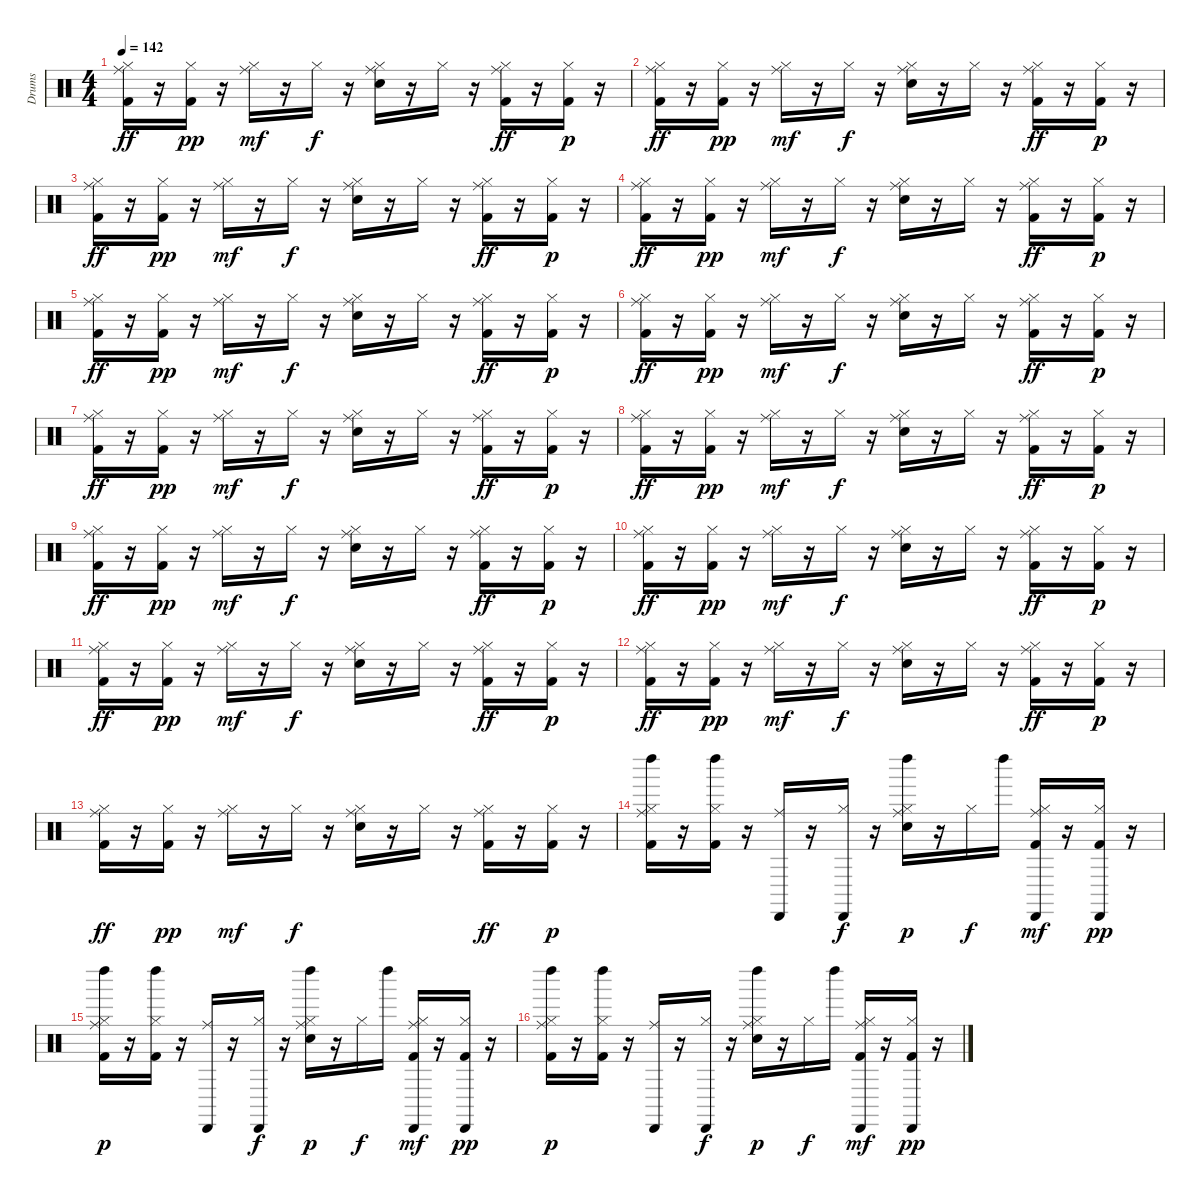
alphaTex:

\track ("Drums" "Drums") {instrument percussion}
\staff {score}
\articulation defaults
\ts (4 4)
\tempo 142
\clef neutral
\ks c
("Ride (middle)" "Hi-Hat (closed)" "Kick (hit) 2").16{dy ff} r.16 ("Hi-Hat (closed)" "Kick (hit) 2").16{dy pp} r.16 ("Ride (middle)" "Hi-Hat (closed)").16{dy mf} r.16 "Hi-Hat (closed)".16{dy f} r.16 ("Ride (middle)" "Hi-Hat (closed)" "Snare (hit) 2").16 r.16 "Hi-Hat (closed)".16 r.16 ("Ride (middle)" "Hi-Hat (closed)" "Kick (hit) 2").16{dy ff} r.16 ("Hi-Hat (closed)" "Kick (hit) 2").16{dy p} r.16 |
("Ride (middle)" "Hi-Hat (closed)" "Kick (hit) 2").16{dy ff} r.16 ("Hi-Hat (closed)" "Kick (hit) 2").16{dy pp} r.16 ("Ride (middle)" "Hi-Hat (closed)").16{dy mf} r.16 "Hi-Hat (closed)".16{dy f} r.16 ("Ride (middle)" "Hi-Hat (closed)" "Snare (hit) 2").16 r.16 "Hi-Hat (closed)".16 r.16 ("Ride (middle)" "Hi-Hat (closed)" "Kick (hit) 2").16{dy ff} r.16 ("Hi-Hat (closed)" "Kick (hit) 2").16{dy p} r.16 |
("Ride (middle)" "Hi-Hat (closed)" "Kick (hit) 2").16{dy ff} r.16 ("Hi-Hat (closed)" "Kick (hit) 2").16{dy pp} r.16 ("Ride (middle)" "Hi-Hat (closed)").16{dy mf} r.16 "Hi-Hat (closed)".16{dy f} r.16 ("Ride (middle)" "Hi-Hat (closed)" "Snare (hit) 2").16 r.16 "Hi-Hat (closed)".16 r.16 ("Ride (middle)" "Hi-Hat (closed)" "Kick (hit) 2").16{dy ff} r.16 ("Hi-Hat (closed)" "Kick (hit) 2").16{dy p} r.16 |
("Ride (middle)" "Hi-Hat (closed)" "Kick (hit) 2").16{dy ff} r.16 ("Hi-Hat (closed)" "Kick (hit) 2").16{dy pp} r.16 ("Ride (middle)" "Hi-Hat (closed)").16{dy mf} r.16 "Hi-Hat (closed)".16{dy f} r.16 ("Ride (middle)" "Hi-Hat (closed)" "Snare (hit) 2").16 r.16 "Hi-Hat (closed)".16 r.16 ("Ride (middle)" "Hi-Hat (closed)" "Kick (hit) 2").16{dy ff} r.16 ("Hi-Hat (closed)" "Kick (hit) 2").16{dy p} r.16 |
("Ride (middle)" "Hi-Hat (closed)" "Kick (hit) 2").16{dy ff} r.16 ("Hi-Hat (closed)" "Kick (hit) 2").16{dy pp} r.16 ("Ride (middle)" "Hi-Hat (closed)").16{dy mf} r.16 "Hi-Hat (closed)".16{dy f} r.16 ("Ride (middle)" "Hi-Hat (closed)" "Snare (hit) 2").16 r.16 "Hi-Hat (closed)".16 r.16 ("Ride (middle)" "Hi-Hat (closed)" "Kick (hit) 2").16{dy ff} r.16 ("Hi-Hat (closed)" "Kick (hit) 2").16{dy p} r.16 |
("Ride (middle)" "Hi-Hat (closed)" "Kick (hit) 2").16{dy ff} r.16 ("Hi-Hat (closed)" "Kick (hit) 2").16{dy pp} r.16 ("Ride (middle)" "Hi-Hat (closed)").16{dy mf} r.16 "Hi-Hat (closed)".16{dy f} r.16 ("Ride (middle)" "Hi-Hat (closed)" "Snare (hit) 2").16 r.16 "Hi-Hat (closed)".16 r.16 ("Ride (middle)" "Hi-Hat (closed)" "Kick (hit) 2").16{dy ff} r.16 ("Hi-Hat (closed)" "Kick (hit) 2").16{dy p} r.16 |
("Ride (middle)" "Hi-Hat (closed)" "Kick (hit) 2").16{dy ff} r.16 ("Hi-Hat (closed)" "Kick (hit) 2").16{dy pp} r.16 ("Ride (middle)" "Hi-Hat (closed)").16{dy mf} r.16 "Hi-Hat (closed)".16{dy f} r.16 ("Ride (middle)" "Hi-Hat (closed)" "Snare (hit) 2").16 r.16 "Hi-Hat (closed)".16 r.16 ("Ride (middle)" "Hi-Hat (closed)" "Kick (hit) 2").16{dy ff} r.16 ("Hi-Hat (closed)" "Kick (hit) 2").16{dy p} r.16 |
("Ride (middle)" "Hi-Hat (closed)" "Kick (hit) 2").16{dy ff} r.16 ("Hi-Hat (closed)" "Kick (hit) 2").16{dy pp} r.16 ("Ride (middle)" "Hi-Hat (closed)").16{dy mf} r.16 "Hi-Hat (closed)".16{dy f} r.16 ("Ride (middle)" "Hi-Hat (closed)" "Snare (hit) 2").16 r.16 "Hi-Hat (closed)".16 r.16 ("Ride (middle)" "Hi-Hat (closed)" "Kick (hit) 2").16{dy ff} r.16 ("Hi-Hat (closed)" "Kick (hit) 2").16{dy p} r.16 |
("Ride (middle)" "Hi-Hat (closed)" "Kick (hit) 2").16{dy ff} r.16 ("Hi-Hat (closed)" "Kick (hit) 2").16{dy pp} r.16 ("Ride (middle)" "Hi-Hat (closed)").16{dy mf} r.16 "Hi-Hat (closed)".16{dy f} r.16 ("Ride (middle)" "Hi-Hat (closed)" "Snare (hit) 2").16 r.16 "Hi-Hat (closed)".16 r.16 ("Ride (middle)" "Hi-Hat (closed)" "Kick (hit) 2").16{dy ff} r.16 ("Hi-Hat (closed)" "Kick (hit) 2").16{dy p} r.16 |
("Ride (middle)" "Hi-Hat (closed)" "Kick (hit) 2").16{dy ff} r.16 ("Hi-Hat (closed)" "Kick (hit) 2").16{dy pp} r.16 ("Ride (middle)" "Hi-Hat (closed)").16{dy mf} r.16 "Hi-Hat (closed)".16{dy f} r.16 ("Ride (middle)" "Hi-Hat (closed)" "Snare (hit) 2").16 r.16 "Hi-Hat (closed)".16 r.16 ("Ride (middle)" "Hi-Hat (closed)" "Kick (hit) 2").16{dy ff} r.16 ("Hi-Hat (closed)" "Kick (hit) 2").16{dy p} r.16 |
("Ride (middle)" "Hi-Hat (closed)" "Kick (hit) 2").16{dy ff} r.16 ("Hi-Hat (closed)" "Kick (hit) 2").16{dy pp} r.16 ("Ride (middle)" "Hi-Hat (closed)").16{dy mf} r.16 "Hi-Hat (closed)".16{dy f} r.16 ("Ride (middle)" "Hi-Hat (closed)" "Snare (hit) 2").16 r.16 "Hi-Hat (closed)".16 r.16 ("Ride (middle)" "Hi-Hat (closed)" "Kick (hit) 2").16{dy ff} r.16 ("Hi-Hat (closed)" "Kick (hit) 2").16{dy p} r.16 |
("Ride (middle)" "Hi-Hat (closed)" "Kick (hit) 2").16{dy ff} r.16 ("Hi-Hat (closed)" "Kick (hit) 2").16{dy pp} r.16 ("Ride (middle)" "Hi-Hat (closed)").16{dy mf} r.16 "Hi-Hat (closed)".16{dy f} r.16 ("Ride (middle)" "Hi-Hat (closed)" "Snare (hit) 2").16 r.16 "Hi-Hat (closed)".16 r.16 ("Ride (middle)" "Hi-Hat (closed)" "Kick (hit) 2").16{dy ff} r.16 ("Hi-Hat (closed)" "Kick (hit) 2").16{dy p} r.16 |
("Ride (middle)" "Hi-Hat (closed)" "Kick (hit) 2").16{dy ff} r.16 ("Hi-Hat (closed)" "Kick (hit) 2").16{dy pp} r.16 ("Ride (middle)" "Hi-Hat (closed)").16{dy mf} r.16 "Hi-Hat (closed)".16{dy f} r.16 ("Ride (middle)" "Hi-Hat (closed)" "Snare (hit) 2").16 r.16 "Hi-Hat (closed)".16 r.16 ("Ride (middle)" "Hi-Hat (closed)" "Kick (hit) 2").16{dy ff} r.16 ("Hi-Hat (closed)" "Kick (hit) 2").16{dy p} r.16 |
("Ride (middle)" "Hi-Hat (closed)" "Left Maraca (hit)" "Kick (hit) 2").16 r.16 ("Hi-Hat (closed)" "Left Maraca (hit)" "Kick (hit) 2").16 r.16 ("Ride (middle)" "Cabasa (hit)").16 r.16 ("Hi-Hat (closed)" "Cabasa (hit)").16{dy f} r.16 ("Ride (middle)" "Hi-Hat (closed)" "Left Maraca (hit)" "Snare (hit) 2").16{dy p} r.16 "Hi-Hat (closed)".16{dy f} "Left Maraca (hit)".16 ("Ride (middle)" "Hi-Hat (closed)" "Cabasa (hit)" "Kick (hit) 2").16{dy mf} r.16 ("Hi-Hat (closed)" "Cabasa (hit)" "Kick (hit) 2").16{dy pp} r.16 |
("Ride (middle)" "Hi-Hat (closed)" "Left Maraca (hit)" "Kick (hit) 2").16{dy p} r.16 ("Hi-Hat (closed)" "Left Maraca (hit)" "Kick (hit) 2").16 r.16 ("Ride (middle)" "Cabasa (hit)").16 r.16 ("Hi-Hat (closed)" "Cabasa (hit)").16{dy f} r.16 ("Ride (middle)" "Hi-Hat (closed)" "Left Maraca (hit)" "Snare (hit) 2").16{dy p} r.16 "Hi-Hat (closed)".16{dy f} "Left Maraca (hit)".16 ("Ride (middle)" "Hi-Hat (closed)" "Cabasa (hit)" "Kick (hit) 2").16{dy mf} r.16 ("Hi-Hat (closed)" "Cabasa (hit)" "Kick (hit) 2").16{dy pp} r.16 |
("Ride (middle)" "Hi-Hat (closed)" "Left Maraca (hit)" "Kick (hit) 2").16{dy p} r.16 ("Hi-Hat (closed)" "Left Maraca (hit)" "Kick (hit) 2").16 r.16 ("Ride (middle)" "Cabasa (hit)").16 r.16 ("Hi-Hat (closed)" "Cabasa (hit)").16{dy f} r.16 ("Ride (middle)" "Hi-Hat (closed)" "Left Maraca (hit)" "Snare (hit) 2").16{dy p} r.16 "Hi-Hat (closed)".16{dy f} "Left Maraca (hit)".16 ("Ride (middle)" "Hi-Hat (closed)" "Cabasa (hit)" "Kick (hit) 2").16{dy mf} r.16 ("Hi-Hat (closed)" "Cabasa (hit)" "Kick (hit) 2").16{dy pp} r.16
